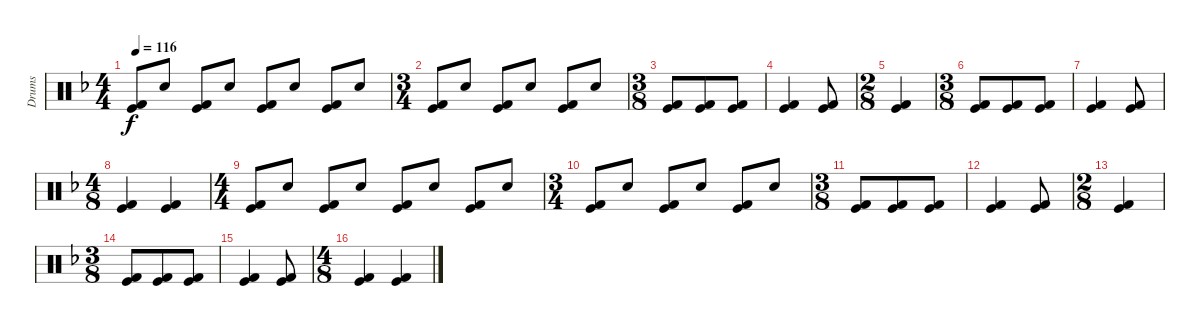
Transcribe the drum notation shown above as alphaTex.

\track ("Drums" "Drums") {instrument percussion}
\staff {score}
\articulation defaults
\ts (4 4)
\tempo 116
\clef neutral
\ks f
("Kick (hit)" "Kick (hit) 2").8{dy f} "Snare (hit) 2".8 ("Kick (hit)" "Kick (hit) 2").8 "Snare (hit) 2".8 ("Kick (hit)" "Kick (hit) 2").8 "Snare (hit) 2".8 ("Kick (hit)" "Kick (hit) 2").8 "Snare (hit) 2".8 |
\ts (3 4)
("Kick (hit)" "Kick (hit) 2").8 "Snare (hit) 2".8 ("Kick (hit)" "Kick (hit) 2").8 "Snare (hit) 2".8 ("Kick (hit)" "Kick (hit) 2").8 "Snare (hit) 2".8 |
\ts (3 8)
("Kick (hit)" "Kick (hit) 2").8 ("Kick (hit)" "Kick (hit) 2").8 ("Kick (hit)" "Kick (hit) 2").8 |
("Kick (hit)" "Kick (hit) 2").4 ("Kick (hit)" "Kick (hit) 2").8 |
\ts (2 8)
("Kick (hit)" "Kick (hit) 2").4 |
\ts (3 8)
("Kick (hit)" "Kick (hit) 2").8 ("Kick (hit)" "Kick (hit) 2").8 ("Kick (hit)" "Kick (hit) 2").8 |
("Kick (hit)" "Kick (hit) 2").4 ("Kick (hit)" "Kick (hit) 2").8 |
\ts (4 8)
("Kick (hit)" "Kick (hit) 2").4 ("Kick (hit)" "Kick (hit) 2").4 |
\ts (4 4)
("Kick (hit)" "Kick (hit) 2").8 "Snare (hit) 2".8 ("Kick (hit)" "Kick (hit) 2").8 "Snare (hit) 2".8 ("Kick (hit)" "Kick (hit) 2").8 "Snare (hit) 2".8 ("Kick (hit)" "Kick (hit) 2").8 "Snare (hit) 2".8 |
\ts (3 4)
("Kick (hit)" "Kick (hit) 2").8 "Snare (hit) 2".8 ("Kick (hit)" "Kick (hit) 2").8 "Snare (hit) 2".8 ("Kick (hit)" "Kick (hit) 2").8 "Snare (hit) 2".8 |
\ts (3 8)
("Kick (hit)" "Kick (hit) 2").8 ("Kick (hit)" "Kick (hit) 2").8 ("Kick (hit)" "Kick (hit) 2").8 |
("Kick (hit)" "Kick (hit) 2").4 ("Kick (hit)" "Kick (hit) 2").8 |
\ts (2 8)
("Kick (hit)" "Kick (hit) 2").4 |
\ts (3 8)
("Kick (hit)" "Kick (hit) 2").8 ("Kick (hit)" "Kick (hit) 2").8 ("Kick (hit)" "Kick (hit) 2").8 |
("Kick (hit)" "Kick (hit) 2").4 ("Kick (hit)" "Kick (hit) 2").8 |
\ts (4 8)
("Kick (hit)" "Kick (hit) 2").4 ("Kick (hit)" "Kick (hit) 2").4
